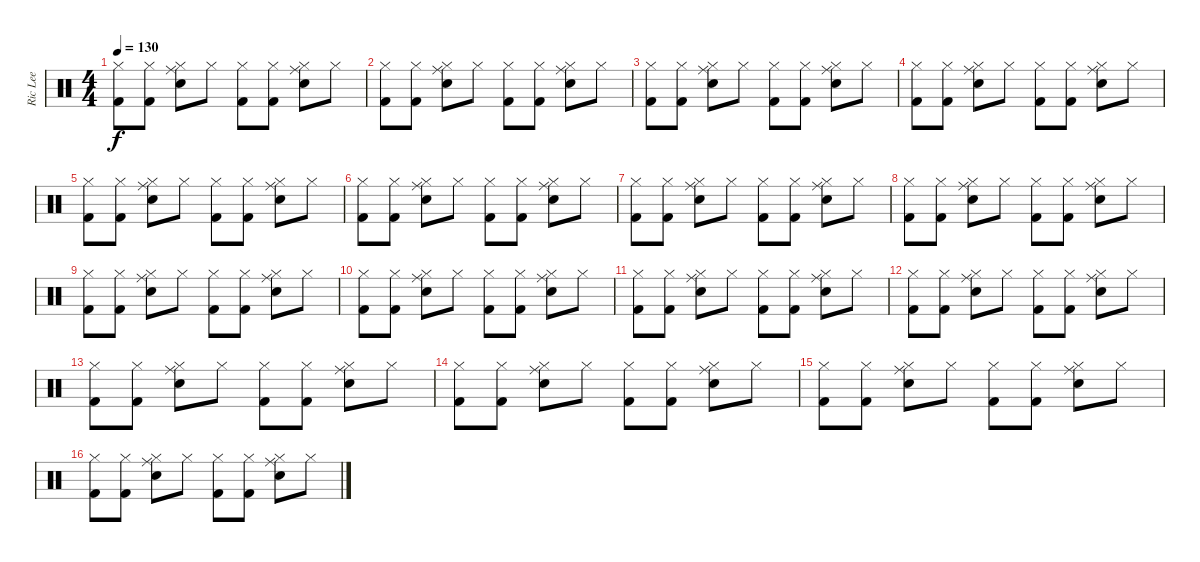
\track ("Ric Lee" "Ric Lee") {instrument percussion}
\staff {score}
\articulation defaults
\ts (4 4)
\tempo 130
\clef neutral
\ks c
("Kick (hit) 2" "Hi-Hat (closed)").8{dy f} ("Kick (hit) 2" "Hi-Hat (closed)").8 ("Snare (hit) 2" "Hi-Hat (closed)" "Ride (middle)").8 "Hi-Hat (closed)".8 ("Kick (hit) 2" "Hi-Hat (closed)").8 ("Kick (hit) 2" "Hi-Hat (closed)").8 ("Snare (hit) 2" "Hi-Hat (closed)" "Ride (middle)").8 "Hi-Hat (closed)".8 |
("Kick (hit) 2" "Hi-Hat (closed)").8 ("Kick (hit) 2" "Hi-Hat (closed)").8 ("Snare (hit) 2" "Hi-Hat (closed)" "Ride (middle)").8 "Hi-Hat (closed)".8 ("Kick (hit) 2" "Hi-Hat (closed)").8 ("Kick (hit) 2" "Hi-Hat (closed)").8 ("Snare (hit) 2" "Hi-Hat (closed)" "Ride (middle)").8 "Hi-Hat (closed)".8 |
("Kick (hit) 2" "Hi-Hat (closed)").8 ("Kick (hit) 2" "Hi-Hat (closed)").8 ("Snare (hit) 2" "Hi-Hat (closed)" "Ride (middle)").8 "Hi-Hat (closed)".8 ("Kick (hit) 2" "Hi-Hat (closed)").8 ("Kick (hit) 2" "Hi-Hat (closed)").8 ("Snare (hit) 2" "Hi-Hat (closed)" "Ride (middle)").8 "Hi-Hat (closed)".8 |
("Kick (hit) 2" "Hi-Hat (closed)").8 ("Kick (hit) 2" "Hi-Hat (closed)").8 ("Snare (hit) 2" "Hi-Hat (closed)" "Ride (middle)").8 "Hi-Hat (closed)".8 ("Kick (hit) 2" "Hi-Hat (closed)").8 ("Kick (hit) 2" "Hi-Hat (closed)").8 ("Snare (hit) 2" "Hi-Hat (closed)" "Ride (middle)").8 "Hi-Hat (closed)".8 |
("Kick (hit) 2" "Hi-Hat (closed)").8 ("Kick (hit) 2" "Hi-Hat (closed)").8 ("Snare (hit) 2" "Hi-Hat (closed)" "Ride (middle)").8 "Hi-Hat (closed)".8 ("Kick (hit) 2" "Hi-Hat (closed)").8 ("Kick (hit) 2" "Hi-Hat (closed)").8 ("Snare (hit) 2" "Hi-Hat (closed)" "Ride (middle)").8 "Hi-Hat (closed)".8 |
("Kick (hit) 2" "Hi-Hat (closed)").8 ("Kick (hit) 2" "Hi-Hat (closed)").8 ("Snare (hit) 2" "Hi-Hat (closed)" "Ride (middle)").8 "Hi-Hat (closed)".8 ("Kick (hit) 2" "Hi-Hat (closed)").8 ("Kick (hit) 2" "Hi-Hat (closed)").8 ("Snare (hit) 2" "Hi-Hat (closed)" "Ride (middle)").8 "Hi-Hat (closed)".8 |
("Kick (hit) 2" "Hi-Hat (closed)").8 ("Kick (hit) 2" "Hi-Hat (closed)").8 ("Snare (hit) 2" "Hi-Hat (closed)" "Ride (middle)").8 "Hi-Hat (closed)".8 ("Kick (hit) 2" "Hi-Hat (closed)").8 ("Kick (hit) 2" "Hi-Hat (closed)").8 ("Snare (hit) 2" "Hi-Hat (closed)" "Ride (middle)").8 "Hi-Hat (closed)".8 |
("Kick (hit) 2" "Hi-Hat (closed)").8 ("Kick (hit) 2" "Hi-Hat (closed)").8 ("Snare (hit) 2" "Hi-Hat (closed)" "Ride (middle)").8 "Hi-Hat (closed)".8 ("Kick (hit) 2" "Hi-Hat (closed)").8 ("Kick (hit) 2" "Hi-Hat (closed)").8 ("Snare (hit) 2" "Hi-Hat (closed)" "Ride (middle)").8 "Hi-Hat (closed)".8 |
("Kick (hit) 2" "Hi-Hat (closed)").8 ("Kick (hit) 2" "Hi-Hat (closed)").8 ("Snare (hit) 2" "Hi-Hat (closed)" "Ride (middle)").8 "Hi-Hat (closed)".8 ("Kick (hit) 2" "Hi-Hat (closed)").8 ("Kick (hit) 2" "Hi-Hat (closed)").8 ("Snare (hit) 2" "Hi-Hat (closed)" "Ride (middle)").8 "Hi-Hat (closed)".8 |
("Kick (hit) 2" "Hi-Hat (closed)").8 ("Kick (hit) 2" "Hi-Hat (closed)").8 ("Snare (hit) 2" "Hi-Hat (closed)" "Ride (middle)").8 "Hi-Hat (closed)".8 ("Kick (hit) 2" "Hi-Hat (closed)").8 ("Kick (hit) 2" "Hi-Hat (closed)").8 ("Snare (hit) 2" "Hi-Hat (closed)" "Ride (middle)").8 "Hi-Hat (closed)".8 |
("Kick (hit) 2" "Hi-Hat (closed)").8 ("Kick (hit) 2" "Hi-Hat (closed)").8 ("Snare (hit) 2" "Hi-Hat (closed)" "Ride (middle)").8 "Hi-Hat (closed)".8 ("Kick (hit) 2" "Hi-Hat (closed)").8 ("Kick (hit) 2" "Hi-Hat (closed)").8 ("Snare (hit) 2" "Hi-Hat (closed)" "Ride (middle)").8 "Hi-Hat (closed)".8 |
("Kick (hit) 2" "Hi-Hat (closed)").8 ("Kick (hit) 2" "Hi-Hat (closed)").8 ("Snare (hit) 2" "Hi-Hat (closed)" "Ride (middle)").8 "Hi-Hat (closed)".8 ("Kick (hit) 2" "Hi-Hat (closed)").8 ("Kick (hit) 2" "Hi-Hat (closed)").8 ("Snare (hit) 2" "Hi-Hat (closed)" "Ride (middle)").8 "Hi-Hat (closed)".8 |
("Kick (hit) 2" "Hi-Hat (closed)").8 ("Kick (hit) 2" "Hi-Hat (closed)").8 ("Snare (hit) 2" "Hi-Hat (closed)" "Ride (middle)").8 "Hi-Hat (closed)".8 ("Kick (hit) 2" "Hi-Hat (closed)").8 ("Kick (hit) 2" "Hi-Hat (closed)").8 ("Snare (hit) 2" "Hi-Hat (closed)" "Ride (middle)").8 "Hi-Hat (closed)".8 |
("Kick (hit) 2" "Hi-Hat (closed)").8 ("Kick (hit) 2" "Hi-Hat (closed)").8 ("Snare (hit) 2" "Hi-Hat (closed)" "Ride (middle)").8 "Hi-Hat (closed)".8 ("Kick (hit) 2" "Hi-Hat (closed)").8 ("Kick (hit) 2" "Hi-Hat (closed)").8 ("Snare (hit) 2" "Hi-Hat (closed)" "Ride (middle)").8 "Hi-Hat (closed)".8 |
("Kick (hit) 2" "Hi-Hat (closed)").8 ("Kick (hit) 2" "Hi-Hat (closed)").8 ("Snare (hit) 2" "Hi-Hat (closed)" "Ride (middle)").8 "Hi-Hat (closed)".8 ("Kick (hit) 2" "Hi-Hat (closed)").8 ("Kick (hit) 2" "Hi-Hat (closed)").8 ("Snare (hit) 2" "Hi-Hat (closed)" "Ride (middle)").8 "Hi-Hat (closed)".8 |
("Kick (hit) 2" "Hi-Hat (closed)").8 ("Kick (hit) 2" "Hi-Hat (closed)").8 ("Snare (hit) 2" "Hi-Hat (closed)" "Ride (middle)").8 "Hi-Hat (closed)".8 ("Kick (hit) 2" "Hi-Hat (closed)").8 ("Kick (hit) 2" "Hi-Hat (closed)").8 ("Snare (hit) 2" "Hi-Hat (closed)" "Ride (middle)").8 "Hi-Hat (closed)".8
